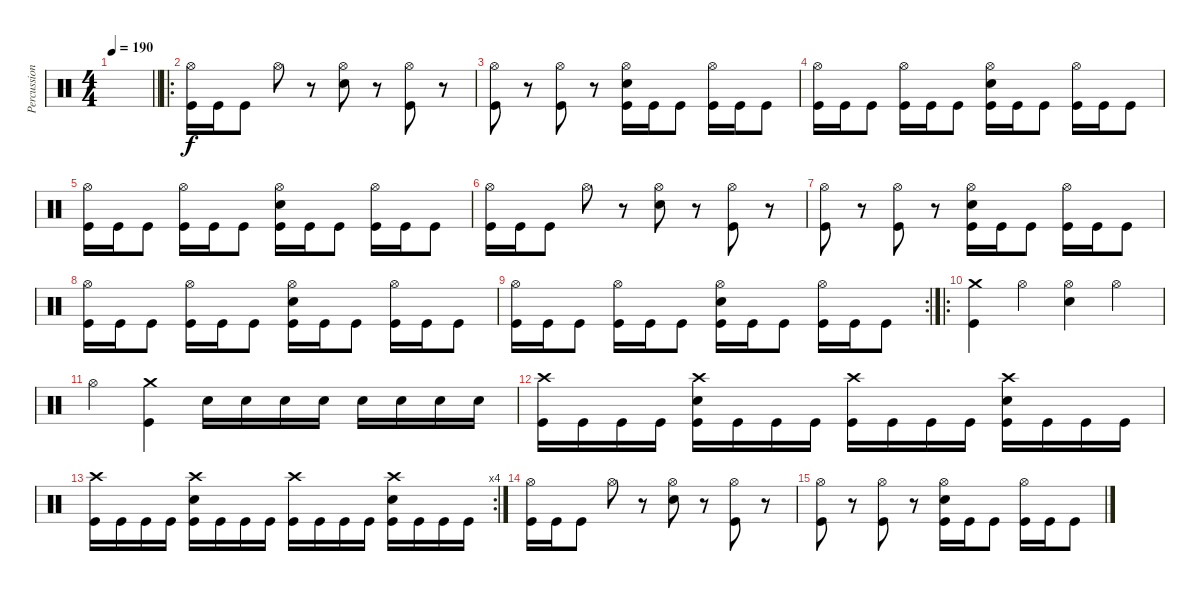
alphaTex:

\track ("Percussion" "Percussion") {instrument percussion}
\staff {score}
\articulation defaults
\ts (4 4)
\tempo 190
\clef neutral
\barLineRight lightlight
\ks c
|
\ro
("Hi-Hat (open)" "Kick (hit)").16 "Kick (hit)".16 "Kick (hit)".8 "Hi-Hat (open)".8 r.8 ("Hi-Hat (open)" "Snare (hit) 2").8 r.8 ("Hi-Hat (open)" "Kick (hit)").8 r.8 |
("Hi-Hat (open)" "Kick (hit)").8 r.8 ("Hi-Hat (open)" "Kick (hit)").8 r.8 ("Hi-Hat (open)" "Snare (hit) 2" "Kick (hit)").16 "Kick (hit)".16 "Kick (hit)".8 ("Hi-Hat (open)" "Kick (hit)").16 "Kick (hit)".16 "Kick (hit)".8 |
("Hi-Hat (open)" "Kick (hit)").16 "Kick (hit)".16 "Kick (hit)".8 ("Hi-Hat (open)" "Kick (hit)").16 "Kick (hit)".16 "Kick (hit)".8 ("Hi-Hat (open)" "Snare (hit) 2" "Kick (hit)").16 "Kick (hit)".16 "Kick (hit)".8 ("Hi-Hat (open)" "Kick (hit)").16 "Kick (hit)".16 "Kick (hit)".8 |
("Hi-Hat (open)" "Kick (hit)").16 "Kick (hit)".16 "Kick (hit)".8 ("Hi-Hat (open)" "Kick (hit)").16 "Kick (hit)".16 "Kick (hit)".8 ("Hi-Hat (open)" "Snare (hit) 2" "Kick (hit)").16 "Kick (hit)".16 "Kick (hit)".8 ("Hi-Hat (open)" "Kick (hit)").16 "Kick (hit)".16 "Kick (hit)".8 |
("Hi-Hat (open)" "Kick (hit)").16 "Kick (hit)".16 "Kick (hit)".8 "Hi-Hat (open)".8 r.8 ("Hi-Hat (open)" "Snare (hit) 2").8 r.8 ("Hi-Hat (open)" "Kick (hit)").8 r.8 |
("Hi-Hat (open)" "Kick (hit)").8 r.8 ("Hi-Hat (open)" "Kick (hit)").8 r.8 ("Hi-Hat (open)" "Snare (hit) 2" "Kick (hit)").16 "Kick (hit)".16 "Kick (hit)".8 ("Hi-Hat (open)" "Kick (hit)").16 "Kick (hit)".16 "Kick (hit)".8 |
("Hi-Hat (open)" "Kick (hit)").16 "Kick (hit)".16 "Kick (hit)".8 ("Hi-Hat (open)" "Kick (hit)").16 "Kick (hit)".16 "Kick (hit)".8 ("Hi-Hat (open)" "Snare (hit) 2" "Kick (hit)").16 "Kick (hit)".16 "Kick (hit)".8 ("Hi-Hat (open)" "Kick (hit)").16 "Kick (hit)".16 "Kick (hit)".8 |
\rc 2
("Hi-Hat (open)" "Kick (hit)").16 "Kick (hit)".16 "Kick (hit)".8 ("Hi-Hat (open)" "Kick (hit)").16 "Kick (hit)".16 "Kick (hit)".8 ("Hi-Hat (open)" "Snare (hit) 2" "Kick (hit)").16 "Kick (hit)".16 "Kick (hit)".8 ("Hi-Hat (open)" "Kick (hit)").16 "Kick (hit)".16 "Kick (hit)".8 |
\ro
("Crash medium (hit)" "Kick (hit)").4 "Hi-Hat (open)".4 ("Hi-Hat (open)" "Snare (hit) 2").4 "Hi-Hat (open)".4 |
"Hi-Hat (open)".4 ("Crash medium (hit)" "Kick (hit)").4 "Snare (hit) 2".16 "Snare (hit) 2".16 "Snare (hit) 2".16 "Snare (hit) 2".16 "Snare (hit) 2".16 "Snare (hit) 2".16 "Snare (hit) 2".16 "Snare (hit) 2".16 |
("Crash high (hit)" "Kick (hit)").16 "Kick (hit)".16 "Kick (hit)".16 "Kick (hit)".16 ("Crash high (hit)" "Snare (hit) 2" "Kick (hit)").16 "Kick (hit)".16 "Kick (hit)".16 "Kick (hit)".16 ("Crash high (hit)" "Kick (hit)").16 "Kick (hit)".16 "Kick (hit)".16 "Kick (hit)".16 ("Crash high (hit)" "Snare (hit) 2" "Kick (hit)").16 "Kick (hit)".16 "Kick (hit)".16 "Kick (hit)".16 |
\rc 4
("Crash high (hit)" "Kick (hit)").16 "Kick (hit)".16 "Kick (hit)".16 "Kick (hit)".16 ("Crash high (hit)" "Snare (hit) 2" "Kick (hit)").16 "Kick (hit)".16 "Kick (hit)".16 "Kick (hit)".16 ("Crash high (hit)" "Kick (hit)").16 "Kick (hit)".16 "Kick (hit)".16 "Kick (hit)".16 ("Crash high (hit)" "Snare (hit) 2" "Kick (hit)").16 "Kick (hit)".16 "Kick (hit)".16 "Kick (hit)".16 |
("Hi-Hat (open)" "Kick (hit)").16 "Kick (hit)".16 "Kick (hit)".8 "Hi-Hat (open)".8 r.8 ("Hi-Hat (open)" "Snare (hit) 2").8 r.8 ("Hi-Hat (open)" "Kick (hit)").8 r.8 |
("Hi-Hat (open)" "Kick (hit)").8 r.8 ("Hi-Hat (open)" "Kick (hit)").8 r.8 ("Hi-Hat (open)" "Snare (hit) 2" "Kick (hit)").16 "Kick (hit)".16 "Kick (hit)".8 ("Hi-Hat (open)" "Kick (hit)").16 "Kick (hit)".16 "Kick (hit)".8
